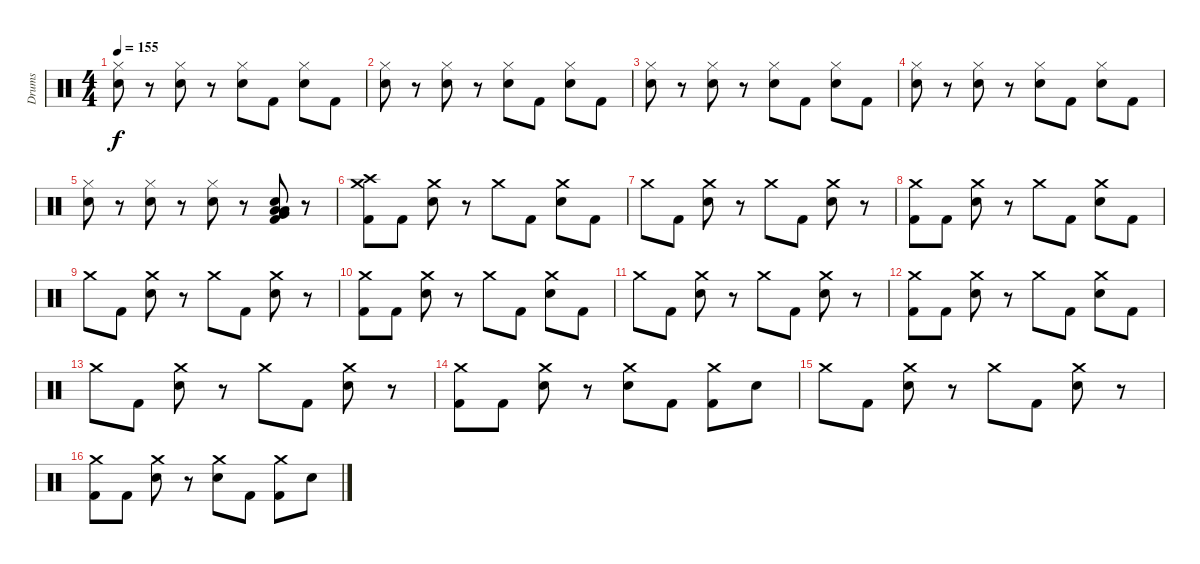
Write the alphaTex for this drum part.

\track ("Drums" "Drums") {instrument percussion}
\staff {score}
\articulation defaults
\ts (4 4)
\tempo 155
\clef neutral
\ks c
("Hi-Hat (closed)" "Electric Snare (hit)").8{dy f} r.8 ("Hi-Hat (closed)" "Electric Snare (hit)").8 r.8 ("Hi-Hat (closed)" "Electric Snare (hit)").8 "Kick (hit) 2".8 ("Hi-Hat (closed)" "Electric Snare (hit)").8 "Kick (hit) 2".8 |
("Hi-Hat (closed)" "Electric Snare (hit)").8 r.8 ("Hi-Hat (closed)" "Electric Snare (hit)").8 r.8 ("Hi-Hat (closed)" "Electric Snare (hit)").8 "Kick (hit) 2".8 ("Hi-Hat (closed)" "Electric Snare (hit)").8 "Kick (hit) 2".8 |
("Hi-Hat (closed)" "Electric Snare (hit)").8 r.8 ("Hi-Hat (closed)" "Electric Snare (hit)").8 r.8 ("Hi-Hat (closed)" "Electric Snare (hit)").8 "Kick (hit) 2".8 ("Hi-Hat (closed)" "Electric Snare (hit)").8 "Kick (hit) 2".8 |
("Hi-Hat (closed)" "Electric Snare (hit)").8 r.8 ("Hi-Hat (closed)" "Electric Snare (hit)").8 r.8 ("Hi-Hat (closed)" "Electric Snare (hit)").8 "Kick (hit) 2".8 ("Hi-Hat (closed)" "Electric Snare (hit)").8 "Kick (hit) 2".8 |
("Hi-Hat (closed)" "Electric Snare (hit)").8 r.8 ("Hi-Hat (closed)" "Electric Snare (hit)").8 r.8 ("Hi-Hat (closed)" "Electric Snare (hit)").8 r.8 ("Electric Snare (hit)" "Low Floor Tom (hit)" "Very Low Tom (hit)" "Low Floor Tom (hit)" "Kick (hit) 2").8 r.8 |
("Crash high (hit)" "Crash medium (hit)" "Kick (hit) 2").8 "Kick (hit) 2".8 ("Crash medium (hit)" "Electric Snare (hit)").8 r.8 "Crash medium (hit)".8 "Kick (hit) 2".8 ("Crash medium (hit)" "Electric Snare (hit)").8 "Kick (hit) 2".8 |
"Crash medium (hit)".8 "Kick (hit) 2".8 ("Crash medium (hit)" "Electric Snare (hit)").8 r.8 "Crash medium (hit)".8 "Kick (hit) 2".8 ("Crash medium (hit)" "Electric Snare (hit)").8 r.8 |
("Crash medium (hit)" "Kick (hit) 2").8 "Kick (hit) 2".8 ("Crash medium (hit)" "Electric Snare (hit)").8 r.8 "Crash medium (hit)".8 "Kick (hit) 2".8 ("Crash medium (hit)" "Electric Snare (hit)").8 "Kick (hit) 2".8 |
"Crash medium (hit)".8 "Kick (hit) 2".8 ("Crash medium (hit)" "Electric Snare (hit)").8 r.8 "Crash medium (hit)".8 "Kick (hit) 2".8 ("Crash medium (hit)" "Electric Snare (hit)").8 r.8 |
("Crash medium (hit)" "Kick (hit) 2").8 "Kick (hit) 2".8 ("Crash medium (hit)" "Electric Snare (hit)").8 r.8 "Crash medium (hit)".8 "Kick (hit) 2".8 ("Crash medium (hit)" "Electric Snare (hit)").8 "Kick (hit) 2".8 |
"Crash medium (hit)".8 "Kick (hit) 2".8 ("Crash medium (hit)" "Electric Snare (hit)").8 r.8 "Crash medium (hit)".8 "Kick (hit) 2".8 ("Crash medium (hit)" "Electric Snare (hit)").8 r.8 |
("Crash medium (hit)" "Kick (hit) 2").8 "Kick (hit) 2".8 ("Crash medium (hit)" "Electric Snare (hit)").8 r.8 "Crash medium (hit)".8 "Kick (hit) 2".8 ("Crash medium (hit)" "Electric Snare (hit)").8 "Kick (hit) 2".8 |
"Crash medium (hit)".8 "Kick (hit) 2".8 ("Crash medium (hit)" "Electric Snare (hit)").8 r.8 "Crash medium (hit)".8 "Kick (hit) 2".8 ("Crash medium (hit)" "Electric Snare (hit)").8 r.8 |
("Crash medium (hit)" "Kick (hit) 2").8 "Kick (hit) 2".8 ("Crash medium (hit)" "Electric Snare (hit)").8 r.8 ("Crash medium (hit)" "Electric Snare (hit)").8 "Kick (hit) 2".8 ("Crash medium (hit)" "Kick (hit) 2").8 "Electric Snare (hit)".8 |
"Crash medium (hit)".8 "Kick (hit) 2".8 ("Crash medium (hit)" "Electric Snare (hit)").8 r.8 "Crash medium (hit)".8 "Kick (hit) 2".8 ("Crash medium (hit)" "Electric Snare (hit)").8 r.8 |
("Crash medium (hit)" "Kick (hit) 2").8 "Kick (hit) 2".8 ("Crash medium (hit)" "Electric Snare (hit)").8 r.8 ("Crash medium (hit)" "Electric Snare (hit)").8 "Kick (hit) 2".8 ("Crash medium (hit)" "Kick (hit) 2").8 "Electric Snare (hit)".8
